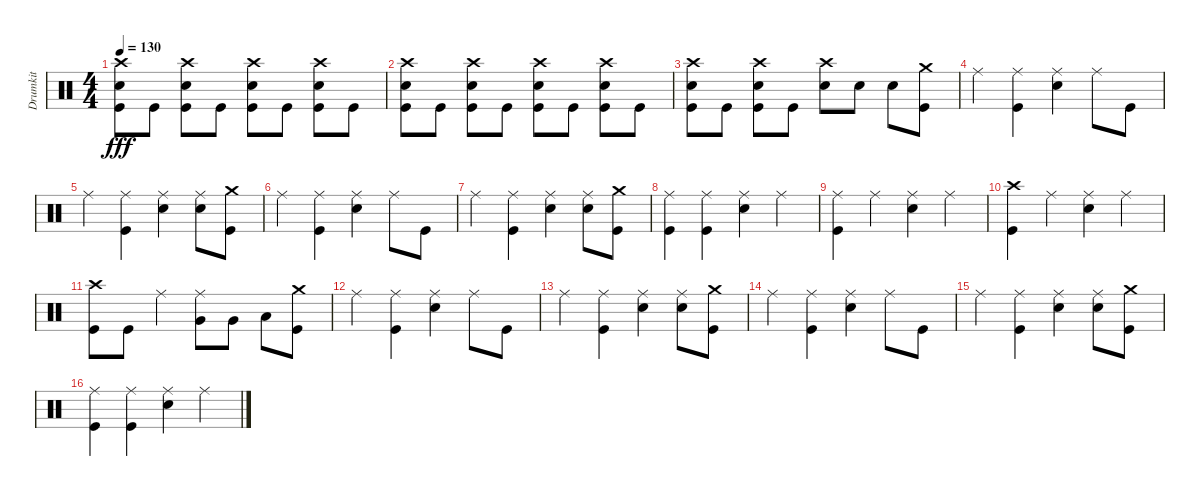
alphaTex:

\track ("Drumkit" "Drumkit") {instrument percussion}
\staff {score}
\articulation defaults
\ts (4 4)
\tempo 130
\clef neutral
\ks c
("Kick (hit)" "Snare (hit) 2" "Crash high (hit)").8{dy fff} "Kick (hit)".8 ("Kick (hit)" "Snare (hit) 2" "Crash high (hit)").8 "Kick (hit)".8 ("Kick (hit)" "Snare (hit) 2" "Crash high (hit)").8 "Kick (hit)".8 ("Kick (hit)" "Snare (hit) 2" "Crash high (hit)").8 "Kick (hit)".8 |
("Kick (hit)" "Snare (hit) 2" "Crash high (hit)").8 "Kick (hit)".8 ("Kick (hit)" "Snare (hit) 2" "Crash high (hit)").8 "Kick (hit)".8 ("Kick (hit)" "Snare (hit) 2" "Crash high (hit)").8 "Kick (hit)".8 ("Kick (hit)" "Snare (hit) 2" "Crash high (hit)").8 "Kick (hit)".8 |
("Kick (hit)" "Snare (hit) 2" "Crash high (hit)").8 "Kick (hit)".8 ("Kick (hit)" "Snare (hit) 2" "Crash high (hit)").8 "Kick (hit)".8 ("Snare (hit) 2" "Crash high (hit)").8 "Snare (hit) 2".8 "Snare (hit) 2".8 ("Crash medium (hit)" "Kick (hit)").8 |
"Ride (middle)".4 ("Ride (middle)" "Kick (hit)").4 ("Ride (middle)" "Snare (hit) 2").4 "Ride (middle)".8 "Kick (hit)".8 |
"Ride (middle)".4 ("Ride (middle)" "Kick (hit)").4 ("Ride (middle)" "Snare (hit) 2").4 ("Ride (middle)" "Snare (hit) 2").8 ("Kick (hit)" "Crash medium (hit)").8 |
"Ride (middle)".4 ("Ride (middle)" "Kick (hit)").4 ("Ride (middle)" "Snare (hit) 2").4 "Ride (middle)".8 "Kick (hit)".8 |
"Ride (middle)".4 ("Ride (middle)" "Kick (hit)").4 ("Ride (middle)" "Snare (hit) 2").4 ("Ride (middle)" "Snare (hit) 2").8 ("Kick (hit)" "Crash medium (hit)").8 |
("Ride (middle)" "Kick (hit)").4 ("Ride (middle)" "Kick (hit)").4 ("Ride (middle)" "Snare (hit) 2").4 "Ride (middle)".4 |
("Ride (middle)" "Kick (hit)").4 "Ride (middle)".4 ("Ride (middle)" "Snare (hit) 2").4 "Ride (middle)".4 |
("Kick (hit)" "Crash high (hit)").4 "Ride (middle)".4 ("Ride (middle)" "Snare (hit) 2").4 "Ride (middle)".4 |
("Kick (hit)" "Crash high (hit)").8 "Kick (hit)".8 "Ride (middle)".4 ("Ride (middle)" "Very Low Tom (hit)").8 "Very Low Tom (hit)".8 "Low Tom (hit)".8 ("Crash medium (hit)" "Kick (hit)").8 |
"Ride (middle)".4 ("Ride (middle)" "Kick (hit)").4 ("Ride (middle)" "Snare (hit) 2").4 "Ride (middle)".8 "Kick (hit)".8 |
"Ride (middle)".4 ("Ride (middle)" "Kick (hit)").4 ("Ride (middle)" "Snare (hit) 2").4 ("Ride (middle)" "Snare (hit) 2").8 ("Kick (hit)" "Crash medium (hit)").8 |
"Ride (middle)".4 ("Ride (middle)" "Kick (hit)").4 ("Ride (middle)" "Snare (hit) 2").4 "Ride (middle)".8 "Kick (hit)".8 |
"Ride (middle)".4 ("Ride (middle)" "Kick (hit)").4 ("Ride (middle)" "Snare (hit) 2").4 ("Ride (middle)" "Snare (hit) 2").8 ("Kick (hit)" "Crash medium (hit)").8 |
("Ride (middle)" "Kick (hit)").4 ("Ride (middle)" "Kick (hit)").4 ("Ride (middle)" "Snare (hit) 2").4 "Ride (middle)".4
